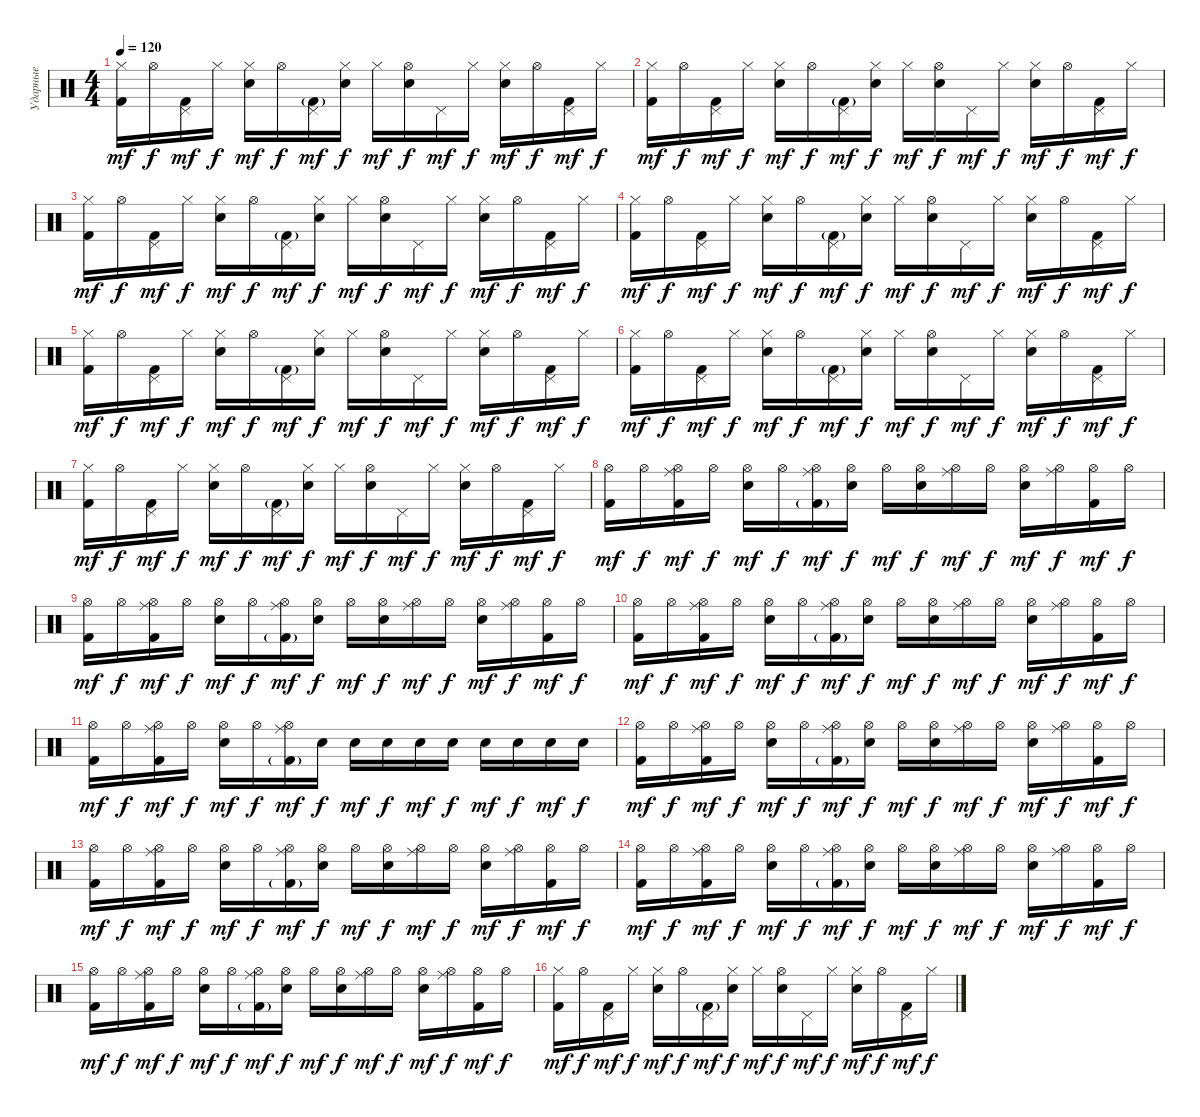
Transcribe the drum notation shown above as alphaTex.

\track ("Ударные" "Ударные") {instrument percussion}
\staff {score}
\articulation defaults
\ts (4 4)
\tempo 120
\clef neutral
\ks c
("Kick (hit) 2" "Hi-Hat (closed)").16{dy mf} "Hi-Hat (open)".16{dy f} ("Kick (hit) 2" "Pedal Hi-Hat (hit)").16{dy mf} "Hi-Hat (closed)".16{dy f} ("Snare (hit) 2" "Hi-Hat (closed)").16{dy mf} "Hi-Hat (open)".16{dy f} ("Kick (hit) 2"{g} "Pedal Hi-Hat (hit)").16{dy mf} ("Snare (hit) 2" "Hi-Hat (closed)").16{dy f} "Hi-Hat (closed)".16{dy mf} ("Snare (hit) 2" "Hi-Hat (open)").16{dy f} "Pedal Hi-Hat (hit)".16{dy mf} "Hi-Hat (closed)".16{dy f} ("Snare (hit) 2" "Hi-Hat (closed)").16{dy mf} "Hi-Hat (open)".16{dy f} ("Kick (hit) 2" "Pedal Hi-Hat (hit)").16{dy mf} "Hi-Hat (closed)".16{dy f} |
("Kick (hit) 2" "Hi-Hat (closed)").16{dy mf} "Hi-Hat (open)".16{dy f} ("Kick (hit) 2" "Pedal Hi-Hat (hit)").16{dy mf} "Hi-Hat (closed)".16{dy f} ("Snare (hit) 2" "Hi-Hat (closed)").16{dy mf} "Hi-Hat (open)".16{dy f} ("Kick (hit) 2"{g} "Pedal Hi-Hat (hit)").16{dy mf} ("Snare (hit) 2" "Hi-Hat (closed)").16{dy f} "Hi-Hat (closed)".16{dy mf} ("Snare (hit) 2" "Hi-Hat (open)").16{dy f} "Pedal Hi-Hat (hit)".16{dy mf} "Hi-Hat (closed)".16{dy f} ("Snare (hit) 2" "Hi-Hat (closed)").16{dy mf} "Hi-Hat (open)".16{dy f} ("Kick (hit) 2" "Pedal Hi-Hat (hit)").16{dy mf} "Hi-Hat (closed)".16{dy f} |
("Kick (hit) 2" "Hi-Hat (closed)").16{dy mf} "Hi-Hat (open)".16{dy f} ("Kick (hit) 2" "Pedal Hi-Hat (hit)").16{dy mf} "Hi-Hat (closed)".16{dy f} ("Snare (hit) 2" "Hi-Hat (closed)").16{dy mf} "Hi-Hat (open)".16{dy f} ("Kick (hit) 2"{g} "Pedal Hi-Hat (hit)").16{dy mf} ("Snare (hit) 2" "Hi-Hat (closed)").16{dy f} "Hi-Hat (closed)".16{dy mf} ("Snare (hit) 2" "Hi-Hat (open)").16{dy f} "Pedal Hi-Hat (hit)".16{dy mf} "Hi-Hat (closed)".16{dy f} ("Snare (hit) 2" "Hi-Hat (closed)").16{dy mf} "Hi-Hat (open)".16{dy f} ("Kick (hit) 2" "Pedal Hi-Hat (hit)").16{dy mf} "Hi-Hat (closed)".16{dy f} |
("Kick (hit) 2" "Hi-Hat (closed)").16{dy mf} "Hi-Hat (open)".16{dy f} ("Kick (hit) 2" "Pedal Hi-Hat (hit)").16{dy mf} "Hi-Hat (closed)".16{dy f} ("Snare (hit) 2" "Hi-Hat (closed)").16{dy mf} "Hi-Hat (open)".16{dy f} ("Kick (hit) 2"{g} "Pedal Hi-Hat (hit)").16{dy mf} ("Snare (hit) 2" "Hi-Hat (closed)").16{dy f} "Hi-Hat (closed)".16{dy mf} ("Snare (hit) 2" "Hi-Hat (open)").16{dy f} "Pedal Hi-Hat (hit)".16{dy mf} "Hi-Hat (closed)".16{dy f} ("Snare (hit) 2" "Hi-Hat (closed)").16{dy mf} "Hi-Hat (open)".16{dy f} ("Kick (hit) 2" "Pedal Hi-Hat (hit)").16{dy mf} "Hi-Hat (closed)".16{dy f} |
("Kick (hit) 2" "Hi-Hat (closed)").16{dy mf} "Hi-Hat (open)".16{dy f} ("Kick (hit) 2" "Pedal Hi-Hat (hit)").16{dy mf} "Hi-Hat (closed)".16{dy f} ("Snare (hit) 2" "Hi-Hat (closed)").16{dy mf} "Hi-Hat (open)".16{dy f} ("Kick (hit) 2"{g} "Pedal Hi-Hat (hit)").16{dy mf} ("Snare (hit) 2" "Hi-Hat (closed)").16{dy f} "Hi-Hat (closed)".16{dy mf} ("Snare (hit) 2" "Hi-Hat (open)").16{dy f} "Pedal Hi-Hat (hit)".16{dy mf} "Hi-Hat (closed)".16{dy f} ("Snare (hit) 2" "Hi-Hat (closed)").16{dy mf} "Hi-Hat (open)".16{dy f} ("Kick (hit) 2" "Pedal Hi-Hat (hit)").16{dy mf} "Hi-Hat (closed)".16{dy f} |
("Kick (hit) 2" "Hi-Hat (closed)").16{dy mf} "Hi-Hat (open)".16{dy f} ("Kick (hit) 2" "Pedal Hi-Hat (hit)").16{dy mf} "Hi-Hat (closed)".16{dy f} ("Snare (hit) 2" "Hi-Hat (closed)").16{dy mf} "Hi-Hat (open)".16{dy f} ("Kick (hit) 2"{g} "Pedal Hi-Hat (hit)").16{dy mf} ("Snare (hit) 2" "Hi-Hat (closed)").16{dy f} "Hi-Hat (closed)".16{dy mf} ("Snare (hit) 2" "Hi-Hat (open)").16{dy f} "Pedal Hi-Hat (hit)".16{dy mf} "Hi-Hat (closed)".16{dy f} ("Snare (hit) 2" "Hi-Hat (closed)").16{dy mf} "Hi-Hat (open)".16{dy f} ("Kick (hit) 2" "Pedal Hi-Hat (hit)").16{dy mf} "Hi-Hat (closed)".16{dy f} |
("Kick (hit) 2" "Hi-Hat (closed)").16{dy mf} "Hi-Hat (open)".16{dy f} ("Kick (hit) 2" "Pedal Hi-Hat (hit)").16{dy mf} "Hi-Hat (closed)".16{dy f} ("Snare (hit) 2" "Hi-Hat (closed)").16{dy mf} "Hi-Hat (open)".16{dy f} ("Kick (hit) 2"{g} "Pedal Hi-Hat (hit)").16{dy mf} ("Snare (hit) 2" "Hi-Hat (closed)").16{dy f} "Hi-Hat (closed)".16{dy mf} ("Snare (hit) 2" "Hi-Hat (open)").16{dy f} "Pedal Hi-Hat (hit)".16{dy mf} "Hi-Hat (closed)".16{dy f} ("Snare (hit) 2" "Hi-Hat (closed)").16{dy mf} "Hi-Hat (open)".16{dy f} ("Kick (hit) 2" "Pedal Hi-Hat (hit)").16{dy mf} "Hi-Hat (closed)".16{dy f} |
("Kick (hit) 2" "Hi-Hat (open)").16{dy mf} "Hi-Hat (open)".16{dy f} ("Kick (hit) 2" "Hi-Hat (open)" "Ride (middle)").16{dy mf} "Hi-Hat (open)".16{dy f} ("Snare (hit) 2" "Hi-Hat (open)").16{dy mf} "Hi-Hat (open)".16{dy f} ("Kick (hit) 2"{g} "Hi-Hat (open)" "Ride (middle)").16{dy mf} ("Snare (hit) 2" "Hi-Hat (open)").16{dy f} "Hi-Hat (open)".16{dy mf} ("Snare (hit) 2" "Hi-Hat (open)").16{dy f} ("Hi-Hat (open)" "Ride (middle)").16{dy mf} "Hi-Hat (open)".16{dy f} ("Snare (hit) 2" "Hi-Hat (open)").16{dy mf} ("Hi-Hat (open)" "Ride (middle)").16{dy f} ("Kick (hit) 2" "Hi-Hat (open)").16{dy mf} "Hi-Hat (open)".16{dy f} |
("Kick (hit) 2" "Hi-Hat (open)").16{dy mf} "Hi-Hat (open)".16{dy f} ("Kick (hit) 2" "Hi-Hat (open)" "Ride (middle)").16{dy mf} "Hi-Hat (open)".16{dy f} ("Snare (hit) 2" "Hi-Hat (open)").16{dy mf} "Hi-Hat (open)".16{dy f} ("Kick (hit) 2"{g} "Hi-Hat (open)" "Ride (middle)").16{dy mf} ("Snare (hit) 2" "Hi-Hat (open)").16{dy f} "Hi-Hat (open)".16{dy mf} ("Snare (hit) 2" "Hi-Hat (open)").16{dy f} ("Hi-Hat (open)" "Ride (middle)").16{dy mf} "Hi-Hat (open)".16{dy f} ("Snare (hit) 2" "Hi-Hat (open)").16{dy mf} ("Hi-Hat (open)" "Ride (middle)").16{dy f} ("Kick (hit) 2" "Hi-Hat (open)").16{dy mf} "Hi-Hat (open)".16{dy f} |
("Kick (hit) 2" "Hi-Hat (open)").16{dy mf} "Hi-Hat (open)".16{dy f} ("Kick (hit) 2" "Hi-Hat (open)" "Ride (middle)").16{dy mf} "Hi-Hat (open)".16{dy f} ("Snare (hit) 2" "Hi-Hat (open)").16{dy mf} "Hi-Hat (open)".16{dy f} ("Kick (hit) 2"{g} "Hi-Hat (open)" "Ride (middle)").16{dy mf} ("Snare (hit) 2" "Hi-Hat (open)").16{dy f} "Hi-Hat (open)".16{dy mf} ("Snare (hit) 2" "Hi-Hat (open)").16{dy f} ("Hi-Hat (open)" "Ride (middle)").16{dy mf} "Hi-Hat (open)".16{dy f} ("Snare (hit) 2" "Hi-Hat (open)").16{dy mf} ("Hi-Hat (open)" "Ride (middle)").16{dy f} ("Kick (hit) 2" "Hi-Hat (open)").16{dy mf} "Hi-Hat (open)".16{dy f} |
("Kick (hit) 2" "Hi-Hat (open)").16{dy mf} "Hi-Hat (open)".16{dy f} ("Kick (hit) 2" "Hi-Hat (open)" "Ride (middle)").16{dy mf} "Hi-Hat (open)".16{dy f} ("Snare (hit) 2" "Hi-Hat (open)").16{dy mf} "Hi-Hat (open)".16{dy f} ("Kick (hit) 2"{g} "Hi-Hat (open)" "Ride (middle)").16{dy mf} "Snare (hit) 2".16{dy f} "Snare (hit) 2".16{dy mf} "Snare (hit) 2".16{dy f} "Snare (hit) 2".16{dy mf} "Snare (hit) 2".16{dy f} "Snare (hit) 2".16{dy mf} "Snare (hit) 2".16{dy f} "Snare (hit) 2".16{dy mf} "Snare (hit) 2".16{dy f} |
("Kick (hit) 2" "Hi-Hat (open)").16{dy mf} "Hi-Hat (open)".16{dy f} ("Kick (hit) 2" "Hi-Hat (open)" "Ride (middle)").16{dy mf} "Hi-Hat (open)".16{dy f} ("Snare (hit) 2" "Hi-Hat (open)").16{dy mf} "Hi-Hat (open)".16{dy f} ("Kick (hit) 2"{g} "Hi-Hat (open)" "Ride (middle)").16{dy mf} ("Snare (hit) 2" "Hi-Hat (open)").16{dy f} "Hi-Hat (open)".16{dy mf} ("Snare (hit) 2" "Hi-Hat (open)").16{dy f} ("Hi-Hat (open)" "Ride (middle)").16{dy mf} "Hi-Hat (open)".16{dy f} ("Snare (hit) 2" "Hi-Hat (open)").16{dy mf} ("Hi-Hat (open)" "Ride (middle)").16{dy f} ("Kick (hit) 2" "Hi-Hat (open)").16{dy mf} "Hi-Hat (open)".16{dy f} |
("Kick (hit) 2" "Hi-Hat (open)").16{dy mf} "Hi-Hat (open)".16{dy f} ("Kick (hit) 2" "Hi-Hat (open)" "Ride (middle)").16{dy mf} "Hi-Hat (open)".16{dy f} ("Snare (hit) 2" "Hi-Hat (open)").16{dy mf} "Hi-Hat (open)".16{dy f} ("Kick (hit) 2"{g} "Hi-Hat (open)" "Ride (middle)").16{dy mf} ("Snare (hit) 2" "Hi-Hat (open)").16{dy f} "Hi-Hat (open)".16{dy mf} ("Snare (hit) 2" "Hi-Hat (open)").16{dy f} ("Hi-Hat (open)" "Ride (middle)").16{dy mf} "Hi-Hat (open)".16{dy f} ("Snare (hit) 2" "Hi-Hat (open)").16{dy mf} ("Hi-Hat (open)" "Ride (middle)").16{dy f} ("Kick (hit) 2" "Hi-Hat (open)").16{dy mf} "Hi-Hat (open)".16{dy f} |
("Kick (hit) 2" "Hi-Hat (open)").16{dy mf} "Hi-Hat (open)".16{dy f} ("Kick (hit) 2" "Hi-Hat (open)" "Ride (middle)").16{dy mf} "Hi-Hat (open)".16{dy f} ("Snare (hit) 2" "Hi-Hat (open)").16{dy mf} "Hi-Hat (open)".16{dy f} ("Kick (hit) 2"{g} "Hi-Hat (open)" "Ride (middle)").16{dy mf} ("Snare (hit) 2" "Hi-Hat (open)").16{dy f} "Hi-Hat (open)".16{dy mf} ("Snare (hit) 2" "Hi-Hat (open)").16{dy f} ("Hi-Hat (open)" "Ride (middle)").16{dy mf} "Hi-Hat (open)".16{dy f} ("Snare (hit) 2" "Hi-Hat (open)").16{dy mf} ("Hi-Hat (open)" "Ride (middle)").16{dy f} ("Kick (hit) 2" "Hi-Hat (open)").16{dy mf} "Hi-Hat (open)".16{dy f} |
("Kick (hit) 2" "Hi-Hat (open)").16{dy mf} "Hi-Hat (open)".16{dy f} ("Kick (hit) 2" "Hi-Hat (open)" "Ride (middle)").16{dy mf} "Hi-Hat (open)".16{dy f} ("Snare (hit) 2" "Hi-Hat (open)").16{dy mf} "Hi-Hat (open)".16{dy f} ("Kick (hit) 2"{g} "Hi-Hat (open)" "Ride (middle)").16{dy mf} ("Snare (hit) 2" "Hi-Hat (open)").16{dy f} "Hi-Hat (open)".16{dy mf} ("Snare (hit) 2" "Hi-Hat (open)").16{dy f} ("Hi-Hat (open)" "Ride (middle)").16{dy mf} "Hi-Hat (open)".16{dy f} ("Snare (hit) 2" "Hi-Hat (open)").16{dy mf} ("Hi-Hat (open)" "Ride (middle)").16{dy f} ("Kick (hit) 2" "Hi-Hat (open)").16{dy mf} "Hi-Hat (open)".16{dy f} |
("Kick (hit) 2" "Hi-Hat (closed)").16{dy mf} "Hi-Hat (open)".16{dy f} ("Kick (hit) 2" "Pedal Hi-Hat (hit)").16{dy mf} "Hi-Hat (closed)".16{dy f} ("Snare (hit) 2" "Hi-Hat (closed)").16{dy mf} "Hi-Hat (open)".16{dy f} ("Kick (hit) 2"{g} "Pedal Hi-Hat (hit)").16{dy mf} ("Snare (hit) 2" "Hi-Hat (closed)").16{dy f} "Hi-Hat (closed)".16{dy mf} ("Snare (hit) 2" "Hi-Hat (open)").16{dy f} "Pedal Hi-Hat (hit)".16{dy mf} "Hi-Hat (closed)".16{dy f} ("Snare (hit) 2" "Hi-Hat (closed)").16{dy mf} "Hi-Hat (open)".16{dy f} ("Kick (hit) 2" "Pedal Hi-Hat (hit)").16{dy mf} "Hi-Hat (closed)".16{dy f}
